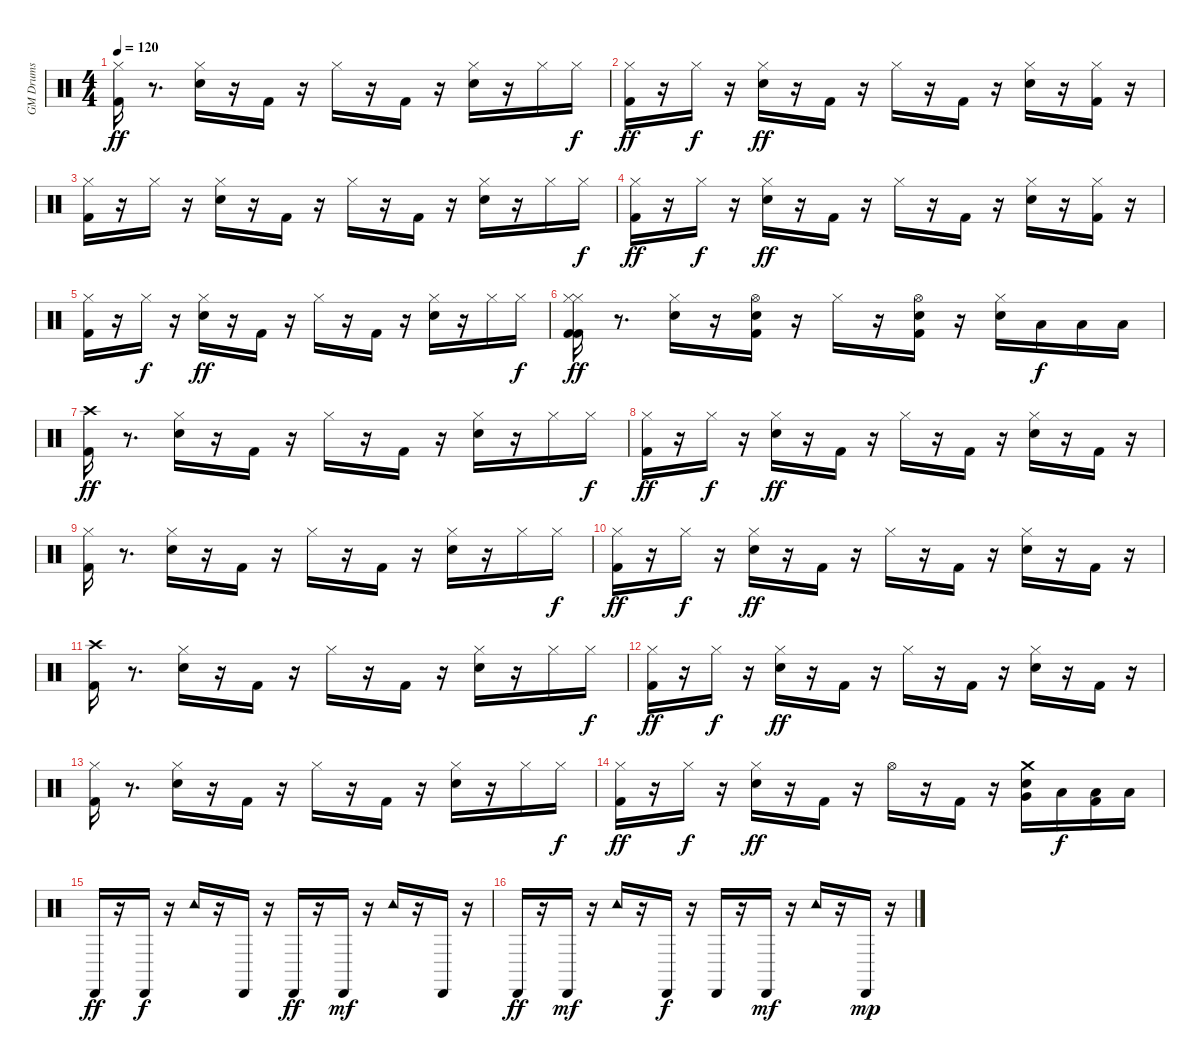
\track ("GM Drums" "GM Drums") {instrument percussion}
\staff {score}
\articulation defaults
\ts (4 4)
\tempo 120
\clef neutral
\ks c
("Kick (hit) 2" "Hi-Hat (closed)").16{dy ff} r.8{d} ("Snare (hit) 2" "Hi-Hat (closed)").16 r.16 "Kick (hit) 2".16 r.16 "Hi-Hat (closed)".16 r.16 "Kick (hit) 2".16 r.16 ("Snare (hit) 2" "Hi-Hat (closed)").16 r.16 "Hi-Hat (closed)".16 "Hi-Hat (closed)".16{dy f} |
("Kick (hit) 2" "Hi-Hat (closed)").16{dy ff} r.16 "Hi-Hat (closed)".16{dy f} r.16 ("Snare (hit) 2" "Hi-Hat (closed)").16{dy ff} r.16 "Kick (hit) 2".16 r.16 "Hi-Hat (closed)".16 r.16 "Kick (hit) 2".16 r.16 ("Snare (hit) 2" "Hi-Hat (closed)").16 r.16 ("Kick (hit) 2" "Hi-Hat (closed)").16 r.16 |
("Kick (hit) 2" "Hi-Hat (closed)").16 r.16 "Hi-Hat (closed)".16 r.16 ("Snare (hit) 2" "Hi-Hat (closed)").16 r.16 "Kick (hit) 2".16 r.16 "Hi-Hat (closed)".16 r.16 "Kick (hit) 2".16 r.16 ("Snare (hit) 2" "Hi-Hat (closed)").16 r.16 "Hi-Hat (closed)".16 "Hi-Hat (closed)".16{dy f} |
("Kick (hit) 2" "Hi-Hat (closed)").16{dy ff} r.16 "Hi-Hat (closed)".16{dy f} r.16 ("Snare (hit) 2" "Hi-Hat (closed)").16{dy ff} r.16 "Kick (hit) 2".16 r.16 "Hi-Hat (closed)".16 r.16 "Kick (hit) 2".16 r.16 ("Snare (hit) 2" "Hi-Hat (closed)").16 r.16 ("Kick (hit) 2" "Hi-Hat (closed)").16 r.16 |
("Kick (hit) 2" "Hi-Hat (closed)").16 r.16 "Hi-Hat (closed)".16{dy f} r.16 ("Snare (hit) 2" "Hi-Hat (closed)").16{dy ff} r.16 "Kick (hit) 2".16 r.16 "Hi-Hat (closed)".16 r.16 "Kick (hit) 2".16 r.16 ("Snare (hit) 2" "Hi-Hat (closed)").16 r.16 "Hi-Hat (closed)".16 "Hi-Hat (closed)".16{dy f} |
("Kick (hit) 2" "Kick (hit) 2" "Hi-Hat (closed)" "Hi-Hat (closed)").16{dy ff} r.8{d} ("Snare (hit) 2" "Hi-Hat (closed)").16 r.16 ("Kick (hit) 2" "Snare (hit) 2" "Hi-Hat (open)").16 r.16 "Hi-Hat (closed)".16 r.16 ("Kick (hit) 2" "Snare (hit) 2" "Hi-Hat (open)").16 r.16 ("Snare (hit) 2" "Hi-Hat (closed)").16 "Low Floor Tom (hit)".16{dy f} "Low Floor Tom (hit)".16 "Low Floor Tom (hit)".16 |
("Kick (hit) 2" "Crash high (hit)").16{dy ff} r.8{d} ("Snare (hit) 2" "Hi-Hat (closed)").16 r.16 "Kick (hit) 2".16 r.16 "Hi-Hat (closed)".16 r.16 "Kick (hit) 2".16 r.16 ("Snare (hit) 2" "Hi-Hat (closed)").16 r.16 "Hi-Hat (closed)".16 "Hi-Hat (closed)".16{dy f} |
("Kick (hit) 2" "Hi-Hat (closed)").16{dy ff} r.16 "Hi-Hat (closed)".16{dy f} r.16 ("Snare (hit) 2" "Hi-Hat (closed)").16{dy ff} r.16 "Kick (hit) 2".16 r.16 "Hi-Hat (closed)".16 r.16 "Kick (hit) 2".16 r.16 ("Snare (hit) 2" "Hi-Hat (closed)").16 r.16 "Kick (hit) 2".16 r.16 |
("Kick (hit) 2" "Hi-Hat (closed)").16 r.8{d} ("Snare (hit) 2" "Hi-Hat (closed)").16 r.16 "Kick (hit) 2".16 r.16 "Hi-Hat (closed)".16 r.16 "Kick (hit) 2".16 r.16 ("Snare (hit) 2" "Hi-Hat (closed)").16 r.16 "Hi-Hat (closed)".16 "Hi-Hat (closed)".16{dy f} |
("Kick (hit) 2" "Hi-Hat (closed)").16{dy ff} r.16 "Hi-Hat (closed)".16{dy f} r.16 ("Snare (hit) 2" "Hi-Hat (closed)").16{dy ff} r.16 "Kick (hit) 2".16 r.16 "Hi-Hat (closed)".16 r.16 "Kick (hit) 2".16 r.16 ("Snare (hit) 2" "Hi-Hat (closed)").16 r.16 "Kick (hit) 2".16 r.16 |
("Kick (hit) 2" "Crash high (hit)").16 r.8{d} ("Snare (hit) 2" "Hi-Hat (closed)").16 r.16 "Kick (hit) 2".16 r.16 "Hi-Hat (closed)".16 r.16 "Kick (hit) 2".16 r.16 ("Snare (hit) 2" "Hi-Hat (closed)").16 r.16 "Hi-Hat (closed)".16 "Hi-Hat (closed)".16{dy f} |
("Kick (hit) 2" "Hi-Hat (closed)").16{dy ff} r.16 "Hi-Hat (closed)".16{dy f} r.16 ("Snare (hit) 2" "Hi-Hat (closed)").16{dy ff} r.16 "Kick (hit) 2".16 r.16 "Hi-Hat (closed)".16 r.16 "Kick (hit) 2".16 r.16 ("Snare (hit) 2" "Hi-Hat (closed)").16 r.16 "Kick (hit) 2".16 r.16 |
("Kick (hit) 2" "Hi-Hat (closed)").16 r.8{d} ("Snare (hit) 2" "Hi-Hat (closed)").16 r.16 "Kick (hit) 2".16 r.16 "Hi-Hat (closed)".16 r.16 "Kick (hit) 2".16 r.16 ("Snare (hit) 2" "Hi-Hat (closed)").16 r.16 "Hi-Hat (closed)".16 "Hi-Hat (closed)".16{dy f} |
("Kick (hit) 2" "Hi-Hat (closed)").16{dy ff} r.16 "Hi-Hat (closed)".16{dy f} r.16 ("Snare (hit) 2" "Hi-Hat (closed)").16{dy ff} r.16 "Kick (hit) 2".16 r.16 "Hi-Hat (open)".16 r.16 "Kick (hit) 2".16 r.16 ("Snare (hit) 2" "Very Low Tom (hit)" "Crash medium (hit)").16 "Low Floor Tom (hit)".16{dy f} ("Kick (hit) 2" "Low Floor Tom (hit)").16 "Low Floor Tom (hit)".16 |
"Cabasa (hit)".16{dy ff} r.16 "Cabasa (hit)".16{dy f} r.16 "Tambourine (hit)".16 r.16 "Cabasa (hit)".16 r.16 "Cabasa (hit)".16{dy ff} r.16 "Cabasa (hit)".16{dy mf} r.16 "Tambourine (hit)".16 r.16 "Cabasa (hit)".16 r.16 |
"Cabasa (hit)".16{dy ff} r.16 "Cabasa (hit)".16{dy mf} r.16 "Tambourine (hit)".16 r.16 "Cabasa (hit)".16{dy f} r.16 "Cabasa (hit)".16 r.16 "Cabasa (hit)".16{dy mf} r.16 "Tambourine (hit)".16 r.16 "Cabasa (hit)".16{dy mp} r.16
